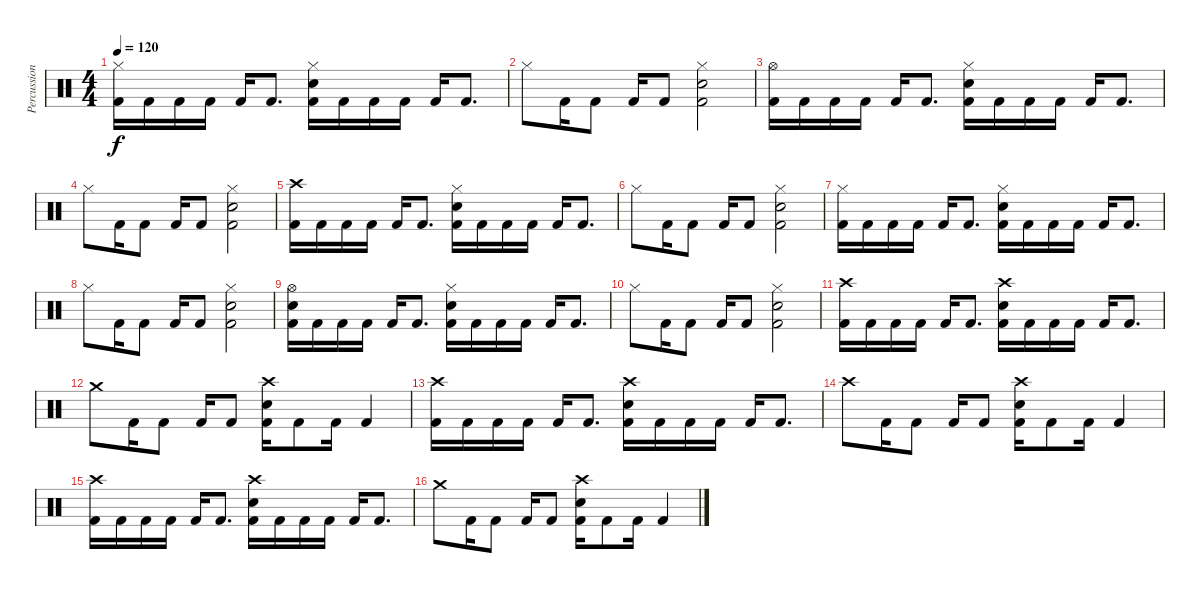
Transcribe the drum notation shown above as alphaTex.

\track ("Percussion" "Percussion") {instrument percussion}
\staff {score}
\articulation defaults
\ts (4 4)
\tempo 120
\clef neutral
\ks c
("Hi-Hat (closed)" "Kick (hit) 2").16{dy f} "Kick (hit) 2".16 "Kick (hit) 2".16 "Kick (hit) 2".16 "Kick (hit) 2".16 "Kick (hit) 2".8{d} ("Hi-Hat (closed)" "Snare (hit) 2" "Kick (hit) 2").16 "Kick (hit) 2".16 "Kick (hit) 2".16 "Kick (hit) 2".16 "Kick (hit) 2".16 "Kick (hit) 2".8{d} |
"Hi-Hat (closed)".8 "Kick (hit) 2".16 "Kick (hit) 2".8 "Kick (hit) 2".16 "Kick (hit) 2".8 ("Hi-Hat (closed)" "Snare (hit) 2" "Kick (hit) 2").2 |
("Hi-Hat (open)" "Kick (hit) 2").16 "Kick (hit) 2".16 "Kick (hit) 2".16 "Kick (hit) 2".16 "Kick (hit) 2".16 "Kick (hit) 2".8{d} ("Hi-Hat (closed)" "Snare (hit) 2" "Kick (hit) 2").16 "Kick (hit) 2".16 "Kick (hit) 2".16 "Kick (hit) 2".16 "Kick (hit) 2".16 "Kick (hit) 2".8{d} |
"Hi-Hat (closed)".8 "Kick (hit) 2".16 "Kick (hit) 2".8 "Kick (hit) 2".16 "Kick (hit) 2".8 ("Hi-Hat (closed)" "Snare (hit) 2" "Kick (hit) 2").2 |
("Crash high (hit)" "Kick (hit) 2").16 "Kick (hit) 2".16 "Kick (hit) 2".16 "Kick (hit) 2".16 "Kick (hit) 2".16 "Kick (hit) 2".8{d} ("Hi-Hat (closed)" "Snare (hit) 2" "Kick (hit) 2").16 "Kick (hit) 2".16 "Kick (hit) 2".16 "Kick (hit) 2".16 "Kick (hit) 2".16 "Kick (hit) 2".8{d} |
"Hi-Hat (closed)".8 "Kick (hit) 2".16 "Kick (hit) 2".8 "Kick (hit) 2".16 "Kick (hit) 2".8 ("Snare (hit) 2" "Hi-Hat (closed)" "Kick (hit) 2").2 |
("Hi-Hat (closed)" "Kick (hit) 2").16 "Kick (hit) 2".16 "Kick (hit) 2".16 "Kick (hit) 2".16 "Kick (hit) 2".16 "Kick (hit) 2".8{d} ("Snare (hit) 2" "Hi-Hat (closed)" "Kick (hit) 2").16 "Kick (hit) 2".16 "Kick (hit) 2".16 "Kick (hit) 2".16 "Kick (hit) 2".16 "Kick (hit) 2".8{d} |
"Hi-Hat (closed)".8 "Kick (hit) 2".16 "Kick (hit) 2".8 "Kick (hit) 2".16 "Kick (hit) 2".8 ("Snare (hit) 2" "Hi-Hat (closed)" "Kick (hit) 2").2 |
("Hi-Hat (open)" "Snare (hit) 2" "Kick (hit) 2").16 "Kick (hit) 2".16 "Kick (hit) 2".16 "Kick (hit) 2".16 "Kick (hit) 2".16 "Kick (hit) 2".8{d} ("Hi-Hat (closed)" "Snare (hit) 2" "Kick (hit) 2").16 "Kick (hit) 2".16 "Kick (hit) 2".16 "Kick (hit) 2".16 "Kick (hit) 2".16 "Kick (hit) 2".8{d} |
"Hi-Hat (closed)".8 "Kick (hit) 2".16 "Kick (hit) 2".8 "Kick (hit) 2".16 "Kick (hit) 2".8 ("Hi-Hat (closed)" "Snare (hit) 2" "Kick (hit) 2").2 |
("Crash high (hit)" "Kick (hit) 2").16 "Kick (hit) 2".16 "Kick (hit) 2".16 "Kick (hit) 2".16 "Kick (hit) 2".16 "Kick (hit) 2".8{d} ("Crash high (hit)" "Snare (hit) 2" "Kick (hit) 2").16 "Kick (hit) 2".16 "Kick (hit) 2".16 "Kick (hit) 2".16 "Kick (hit) 2".16 "Kick (hit) 2".8{d} |
"Crash medium (hit)".8 "Kick (hit) 2".16 "Kick (hit) 2".8 "Kick (hit) 2".16 "Kick (hit) 2".8 ("Crash high (hit)" "Snare (hit) 2" "Kick (hit) 2").16 "Kick (hit) 2".8 "Kick (hit) 2".16 "Kick (hit) 2".4 |
("Crash high (hit)" "Kick (hit) 2").16 "Kick (hit) 2".16 "Kick (hit) 2".16 "Kick (hit) 2".16 "Kick (hit) 2".16 "Kick (hit) 2".8{d} ("Crash high (hit)" "Snare (hit) 2" "Kick (hit) 2").16 "Kick (hit) 2".16 "Kick (hit) 2".16 "Kick (hit) 2".16 "Kick (hit) 2".16 "Kick (hit) 2".8{d} |
"Crash high (hit)".8 "Kick (hit) 2".16 "Kick (hit) 2".8 "Kick (hit) 2".16 "Kick (hit) 2".8 ("Crash high (hit)" "Snare (hit) 2" "Kick (hit) 2").16 "Kick (hit) 2".8 "Kick (hit) 2".16 "Kick (hit) 2".4 |
("Crash high (hit)" "Kick (hit) 2").16 "Kick (hit) 2".16 "Kick (hit) 2".16 "Kick (hit) 2".16 "Kick (hit) 2".16 "Kick (hit) 2".8{d} ("Crash high (hit)" "Snare (hit) 2" "Kick (hit) 2").16 "Kick (hit) 2".16 "Kick (hit) 2".16 "Kick (hit) 2".16 "Kick (hit) 2".16 "Kick (hit) 2".8{d} |
"Crash medium (hit)".8 "Kick (hit) 2".16 "Kick (hit) 2".8 "Kick (hit) 2".16 "Kick (hit) 2".8 ("Crash high (hit)" "Snare (hit) 2" "Kick (hit) 2").16 "Kick (hit) 2".8 "Kick (hit) 2".16 "Kick (hit) 2".4
